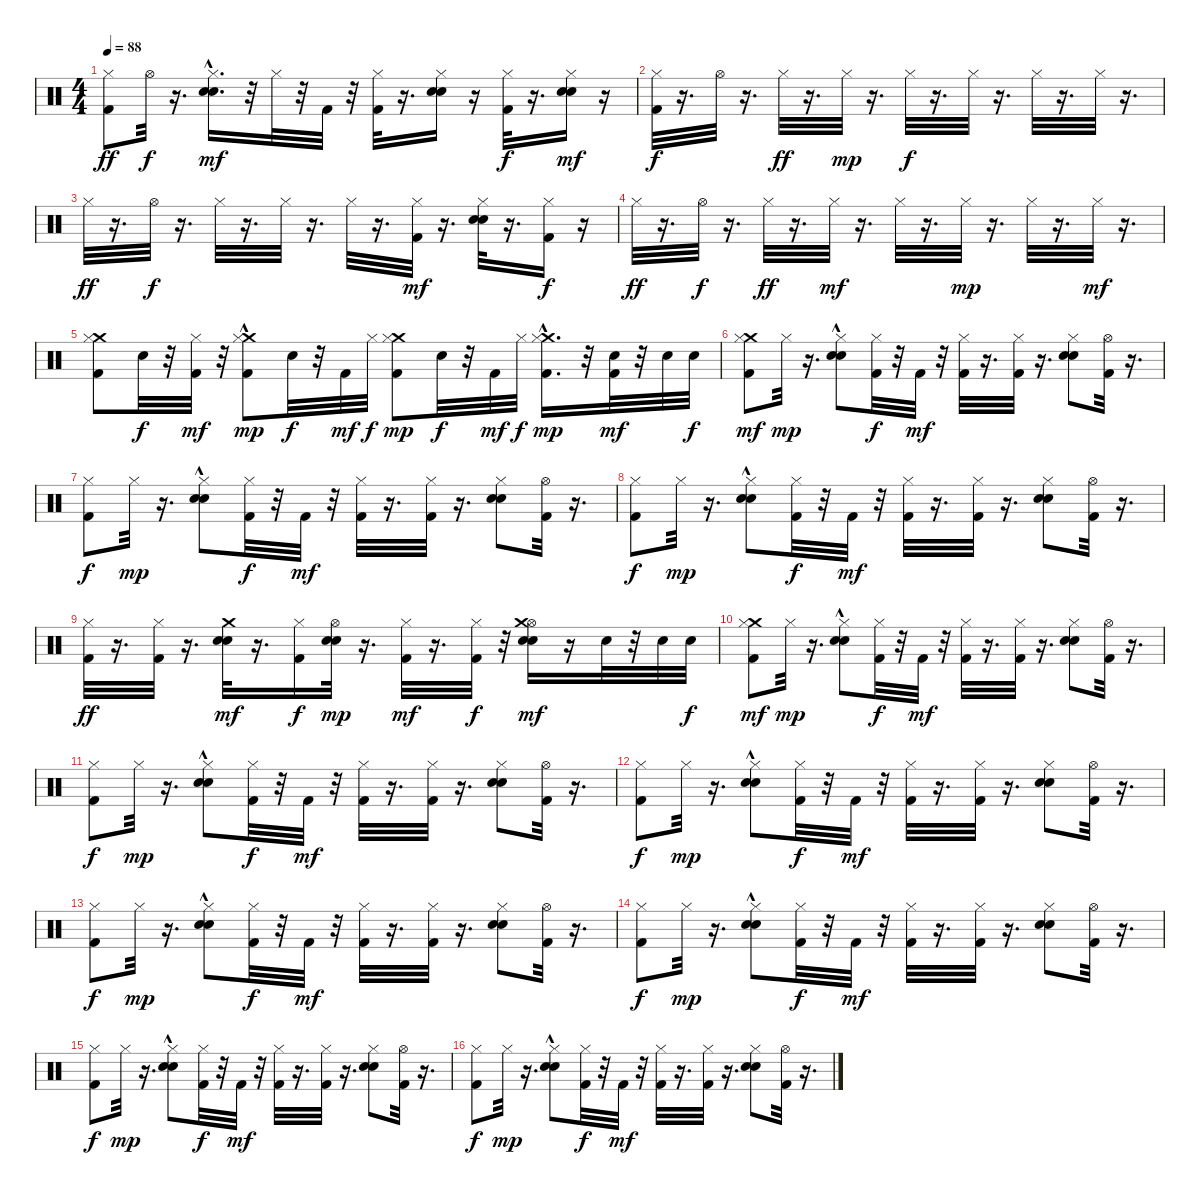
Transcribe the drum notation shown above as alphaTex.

\track "" {instrument percussion}
\staff {score}
\articulation defaults
\ts (4 4)
\tempo 88
\clef neutral
\ks c
("Hi-Hat (closed)" "Kick (hit) 2").8{dy ff} "Hi-Hat (open)".32{dy f} r.16{d} ("Hi-Hat (closed)" "Hand Clap (hit)"{hac} "Electric Snare (hit)"{hac}).16{d dy mf} r.32 "Hi-Hat (closed)".32 r.32 "Kick (hit) 2".32 r.32 ("Hi-Hat (closed)" "Kick (hit) 2").32 r.16{d} ("Hand Clap (hit)" "Electric Snare (hit)" "Hi-Hat (closed)").16 r.16 ("Kick (hit) 2" "Hi-Hat (closed)").32{dy f} r.16{d} ("Hand Clap (hit)" "Electric Snare (hit)" "Hi-Hat (closed)").16{dy mf} r.16 |
("Hi-Hat (closed)" "Kick (hit) 2").32{dy f} r.16{d} "Hi-Hat (open)".32 r.16{d} "Hi-Hat (closed)".32{dy ff} r.16{d} "Hi-Hat (closed)".32{dy mp} r.16{d} "Hi-Hat (closed)".32{dy f} r.16{d} "Hi-Hat (closed)".32 r.16{d} "Hi-Hat (closed)".32 r.16{d} "Hi-Hat (closed)".32 r.16{d} |
"Hi-Hat (closed)".32{dy ff} r.16{d} "Hi-Hat (open)".32{dy f} r.16{d} "Hi-Hat (closed)".32 r.16{d} "Hi-Hat (closed)".32 r.16{d} "Hi-Hat (closed)".32 r.16{d} ("Kick (hit) 2" "Hi-Hat (closed)").32{dy mf} r.16{d} ("Hand Clap (hit)" "Electric Snare (hit)" "Hi-Hat (closed)").32 r.16{d} ("Kick (hit) 2" "Hi-Hat (closed)").16{dy f} r.16 |
"Hi-Hat (closed)".32{dy ff} r.16{d} "Hi-Hat (open)".32{dy f} r.16{d} "Hi-Hat (closed)".32{dy ff} r.16{d} "Hi-Hat (closed)".32{dy mf} r.16{d} "Hi-Hat (closed)".32 r.16{d} "Hi-Hat (closed)".32{dy mp} r.16{d} "Hi-Hat (closed)".32 r.16{d} "Hi-Hat (closed)".32{dy mf} r.16{d} |
("Crash medium (hit)" "Hi-Hat (closed)" "Kick (hit) 2").8 "Electric Snare (hit)".32{dy f} r.32 ("Hi-Hat (closed)" "Kick (hit) 2").32{dy mf} r.32 ("Crash medium (hit)" "Kick (hit) 2"{hac} "Hi-Hat (closed)"{hac}).8{dy mp} "Electric Snare (hit)".32{dy f} r.32 "Kick (hit) 2".32{dy mf} "Hi-Hat (closed)".32{dy f} ("Crash medium (hit)" "Kick (hit) 2" "Hi-Hat (closed)").8{dy mp} "Electric Snare (hit)".32{dy f} r.32 "Kick (hit) 2".32{dy mf} "Hi-Hat (closed)".32{dy f} ("Crash medium (hit)"{hac} "Hi-Hat (closed)" "Kick (hit) 2").16{d dy mp} r.32 ("Electric Snare (hit)" "Kick (hit) 2").32{dy mf} r.32 "Electric Snare (hit)".32 "Electric Snare (hit)".32{dy f} |
("Crash medium (hit)" "Hi-Hat (closed)" "Kick (hit) 2").8{dy mf} "Hi-Hat (closed)".32{dy mp} r.16{d} ("Hi-Hat (closed)" "Hand Clap (hit)" "Electric Snare (hit)"{hac}).8 ("Hi-Hat (closed)" "Kick (hit) 2").32{dy f} r.32 "Kick (hit) 2".32{dy mf} r.32 ("Kick (hit) 2" "Hi-Hat (closed)").32 r.16{d} ("Hi-Hat (closed)" "Kick (hit) 2").32 r.16{d} ("Electric Snare (hit)" "Hi-Hat (closed)" "Hand Clap (hit)").8 ("Hi-Hat (open)" "Kick (hit) 2").32 r.16{d} |
("Hi-Hat (closed)" "Kick (hit) 2").8{dy f} "Hi-Hat (closed)".32{dy mp} r.16{d} ("Hi-Hat (closed)" "Hand Clap (hit)" "Electric Snare (hit)"{hac}).8 ("Kick (hit) 2" "Hi-Hat (closed)").32{dy f} r.32 "Kick (hit) 2".32{dy mf} r.32 ("Kick (hit) 2" "Hi-Hat (closed)").32 r.16{d} ("Kick (hit) 2" "Hi-Hat (closed)").32 r.16{d} ("Electric Snare (hit)" "Hi-Hat (closed)" "Hand Clap (hit)").8 ("Hi-Hat (open)" "Kick (hit) 2").32 r.16{d} |
("Hi-Hat (closed)" "Kick (hit) 2").8{dy f} "Hi-Hat (closed)".32{dy mp} r.16{d} ("Hi-Hat (closed)" "Hand Clap (hit)" "Electric Snare (hit)"{hac}).8 ("Hi-Hat (closed)" "Kick (hit) 2").32{dy f} r.32 "Kick (hit) 2".32{dy mf} r.32 ("Kick (hit) 2" "Hi-Hat (closed)").32 r.16{d} ("Hi-Hat (closed)" "Kick (hit) 2").32 r.16{d} ("Electric Snare (hit)" "Hi-Hat (closed)" "Hand Clap (hit)").8 ("Hi-Hat (open)" "Kick (hit) 2").32 r.16{d} |
("Hi-Hat (closed)" "Kick (hit) 2").32{dy ff} r.16{d} ("Hi-Hat (closed)" "Kick (hit) 2").32 r.16{d} ("Hand Clap (hit)" "Crash medium (hit)" "Electric Snare (hit)").32{dy mf} r.16{d} ("Hi-Hat (closed)" "Kick (hit) 2").16{dy f} ("Hand Clap (hit)" "Hi-Hat (open)" "Electric Snare (hit)").32{dy mp} r.16{d} ("Hi-Hat (closed)" "Kick (hit) 2").32{dy mf} r.16{d} ("Hi-Hat (closed)" "Kick (hit) 2").32{dy f} r.32 ("Hand Clap (hit)" "Hi-Hat (open)" "Crash medium (hit)" "Electric Snare (hit)").16{dy mf} r.16 "Electric Snare (hit)".32 r.32 "Electric Snare (hit)".32 "Electric Snare (hit)".32{dy f} |
("Crash medium (hit)" "Hi-Hat (closed)" "Kick (hit) 2").8{dy mf} "Hi-Hat (closed)".32{dy mp} r.16{d} ("Hi-Hat (closed)" "Hand Clap (hit)" "Electric Snare (hit)"{hac}).8 ("Hi-Hat (closed)" "Kick (hit) 2").32{dy f} r.32 "Kick (hit) 2".32{dy mf} r.32 ("Kick (hit) 2" "Hi-Hat (closed)").32 r.16{d} ("Hi-Hat (closed)" "Kick (hit) 2").32 r.16{d} ("Electric Snare (hit)" "Hi-Hat (closed)" "Hand Clap (hit)").8 ("Hi-Hat (open)" "Kick (hit) 2").32 r.16{d} |
("Hi-Hat (closed)" "Kick (hit) 2").8{dy f} "Hi-Hat (closed)".32{dy mp} r.16{d} ("Hi-Hat (closed)" "Hand Clap (hit)" "Electric Snare (hit)"{hac}).8 ("Kick (hit) 2" "Hi-Hat (closed)").32{dy f} r.32 "Kick (hit) 2".32{dy mf} r.32 ("Kick (hit) 2" "Hi-Hat (closed)").32 r.16{d} ("Kick (hit) 2" "Hi-Hat (closed)").32 r.16{d} ("Electric Snare (hit)" "Hi-Hat (closed)" "Hand Clap (hit)").8 ("Hi-Hat (open)" "Kick (hit) 2").32 r.16{d} |
("Hi-Hat (closed)" "Kick (hit) 2").8{dy f} "Hi-Hat (closed)".32{dy mp} r.16{d} ("Hi-Hat (closed)" "Hand Clap (hit)" "Electric Snare (hit)"{hac}).8 ("Hi-Hat (closed)" "Kick (hit) 2").32{dy f} r.32 "Kick (hit) 2".32{dy mf} r.32 ("Kick (hit) 2" "Hi-Hat (closed)").32 r.16{d} ("Hi-Hat (closed)" "Kick (hit) 2").32 r.16{d} ("Electric Snare (hit)" "Hi-Hat (closed)" "Hand Clap (hit)").8 ("Hi-Hat (open)" "Kick (hit) 2").32 r.16{d} |
("Hi-Hat (closed)" "Kick (hit) 2").8{dy f} "Hi-Hat (closed)".32{dy mp} r.16{d} ("Hi-Hat (closed)" "Hand Clap (hit)" "Electric Snare (hit)"{hac}).8 ("Kick (hit) 2" "Hi-Hat (closed)").32{dy f} r.32 "Kick (hit) 2".32{dy mf} r.32 ("Kick (hit) 2" "Hi-Hat (closed)").32 r.16{d} ("Kick (hit) 2" "Hi-Hat (closed)").32 r.16{d} ("Electric Snare (hit)" "Hi-Hat (closed)" "Hand Clap (hit)").8 ("Hi-Hat (open)" "Kick (hit) 2").32 r.16{d} |
("Hi-Hat (closed)" "Kick (hit) 2").8{dy f} "Hi-Hat (closed)".32{dy mp} r.16{d} ("Hi-Hat (closed)" "Hand Clap (hit)" "Electric Snare (hit)"{hac}).8 ("Hi-Hat (closed)" "Kick (hit) 2").32{dy f} r.32 "Kick (hit) 2".32{dy mf} r.32 ("Kick (hit) 2" "Hi-Hat (closed)").32 r.16{d} ("Hi-Hat (closed)" "Kick (hit) 2").32 r.16{d} ("Electric Snare (hit)" "Hi-Hat (closed)" "Hand Clap (hit)").8 ("Hi-Hat (open)" "Kick (hit) 2").32 r.16{d} |
("Hi-Hat (closed)" "Kick (hit) 2").8{dy f} "Hi-Hat (closed)".32{dy mp} r.16{d} ("Hi-Hat (closed)" "Hand Clap (hit)" "Electric Snare (hit)"{hac}).8 ("Kick (hit) 2" "Hi-Hat (closed)").32{dy f} r.32 "Kick (hit) 2".32{dy mf} r.32 ("Kick (hit) 2" "Hi-Hat (closed)").32 r.16{d} ("Kick (hit) 2" "Hi-Hat (closed)").32 r.16{d} ("Electric Snare (hit)" "Hi-Hat (closed)" "Hand Clap (hit)").8 ("Hi-Hat (open)" "Kick (hit) 2").32 r.16{d} |
("Hi-Hat (closed)" "Kick (hit) 2").8{dy f} "Hi-Hat (closed)".32{dy mp} r.16{d} ("Hi-Hat (closed)" "Hand Clap (hit)" "Electric Snare (hit)"{hac}).8 ("Hi-Hat (closed)" "Kick (hit) 2").32{dy f} r.32 "Kick (hit) 2".32{dy mf} r.32 ("Kick (hit) 2" "Hi-Hat (closed)").32 r.16{d} ("Hi-Hat (closed)" "Kick (hit) 2").32 r.16{d} ("Electric Snare (hit)" "Hi-Hat (closed)" "Hand Clap (hit)").8 ("Hi-Hat (open)" "Kick (hit) 2").32 r.16{d}
